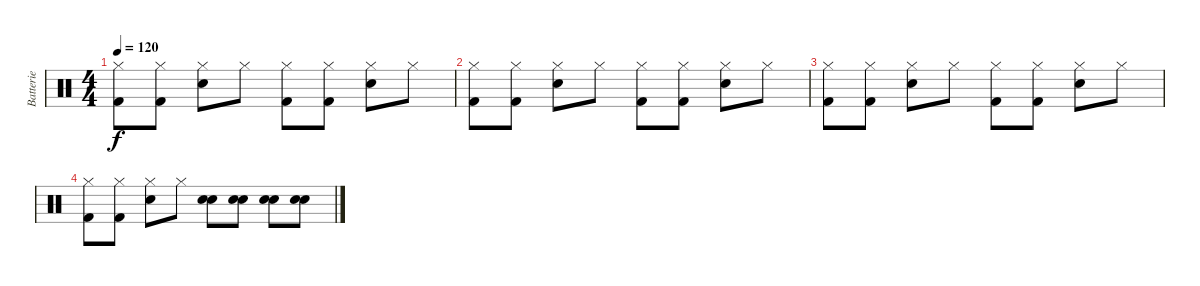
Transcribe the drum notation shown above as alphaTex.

\track ("Batterie" "Batterie") {instrument percussion}
\staff {score}
\articulation defaults
\ts (4 4)
\tempo 120
\clef neutral
\ks c
("Hi-Hat (closed)" "Kick (hit) 2").8{dy f} ("Hi-Hat (closed)" "Kick (hit) 2").8 ("Hi-Hat (closed)" "Electric Snare (hit)").8 "Hi-Hat (closed)".8 ("Hi-Hat (closed)" "Kick (hit) 2").8 ("Hi-Hat (closed)" "Kick (hit) 2").8 ("Hi-Hat (closed)" "Electric Snare (hit)").8 "Hi-Hat (closed)".8 |
("Hi-Hat (closed)" "Kick (hit) 2").8 ("Hi-Hat (closed)" "Kick (hit) 2").8 ("Hi-Hat (closed)" "Electric Snare (hit)").8 "Hi-Hat (closed)".8 ("Hi-Hat (closed)" "Kick (hit) 2").8 ("Hi-Hat (closed)" "Kick (hit) 2").8 ("Hi-Hat (closed)" "Electric Snare (hit)").8 "Hi-Hat (closed)".8 |
("Hi-Hat (closed)" "Kick (hit) 2").8 ("Hi-Hat (closed)" "Kick (hit) 2").8 ("Hi-Hat (closed)" "Electric Snare (hit)").8 "Hi-Hat (closed)".8 ("Hi-Hat (closed)" "Kick (hit) 2").8 ("Hi-Hat (closed)" "Kick (hit) 2").8 ("Hi-Hat (closed)" "Electric Snare (hit)").8 "Hi-Hat (closed)".8 |
("Hi-Hat (closed)" "Kick (hit) 2").8 ("Hi-Hat (closed)" "Kick (hit) 2").8 ("Hi-Hat (closed)" "Electric Snare (hit)").8 "Hi-Hat (closed)".8 ("Electric Snare (hit)" "Electric Snare (hit)").8 ("Electric Snare (hit)" "Electric Snare (hit)").8 ("Electric Snare (hit)" "Electric Snare (hit)").8 ("Electric Snare (hit)" "Electric Snare (hit)").8
